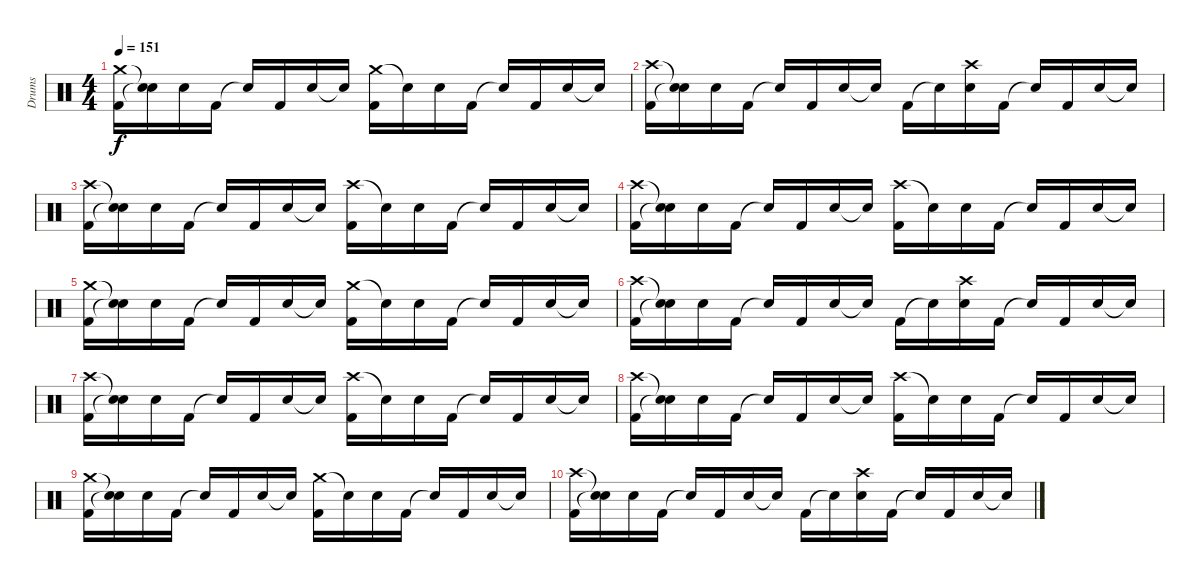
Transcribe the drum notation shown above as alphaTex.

\track ("Drums" "Drums") {instrument percussion}
\staff {score}
\articulation defaults
\ts (4 4)
\tempo 151
\clef neutral
\ks c
("Crash medium (hit)" "Kick (hit) 2").16{dy f} ("Snare (hit)"{t} "Snare (hit)"{t}).16 "Snare (hit) 2".16 "Kick (hit) 2".16 "Snare (hit)"{t}.16 "Kick (hit) 2".16 "Snare (hit) 2".16 "Snare (hit)"{t}.16 ("Crash medium (hit)" "Kick (hit) 2").16 "Snare (hit)"{t}.16 "Snare (hit) 2".16 "Kick (hit) 2".16 "Snare (hit)"{t}.16 "Kick (hit) 2".16 "Snare (hit) 2".16 "Snare (hit)"{t}.16 |
("Crash high (hit)" "Kick (hit) 2").16 ("Snare (hit)"{t} "Snare (hit)"{t}).16 "Snare (hit) 2".16 "Kick (hit) 2".16 "Snare (hit)"{t}.16 "Kick (hit) 2".16 "Snare (hit) 2".16 "Snare (hit)"{t}.16 "Kick (hit) 2".16 "Snare (hit)"{t}.16 ("Crash high (hit)" "Snare (hit) 2").16 "Kick (hit) 2".16 "Snare (hit)"{t}.16 "Kick (hit) 2".16 "Snare (hit) 2".16 "Snare (hit)"{t}.16 |
("Crash high (hit)" "Kick (hit) 2").16 ("Snare (hit)"{t} "Snare (hit)"{t}).16 "Snare (hit) 2".16 "Kick (hit) 2".16 "Snare (hit)"{t}.16 "Kick (hit) 2".16 "Snare (hit) 2".16 "Snare (hit)"{t}.16 ("Crash high (hit)" "Kick (hit) 2").16 "Snare (hit)"{t}.16 "Snare (hit) 2".16 "Kick (hit) 2".16 "Snare (hit)"{t}.16 "Kick (hit) 2".16 "Snare (hit) 2".16 "Snare (hit)"{t}.16 |
("Crash high (hit)" "Kick (hit) 2").16 ("Snare (hit)"{t} "Snare (hit)"{t}).16 "Snare (hit) 2".16 "Kick (hit) 2".16 "Snare (hit)"{t}.16 "Kick (hit) 2".16 "Snare (hit) 2".16 "Snare (hit)"{t}.16 ("Crash high (hit)" "Kick (hit) 2").16 "Snare (hit)"{t}.16 "Snare (hit) 2".16 "Kick (hit) 2".16 "Snare (hit)"{t}.16 "Kick (hit) 2".16 "Snare (hit) 2".16 "Snare (hit)"{t}.16 |
("Crash medium (hit)" "Kick (hit) 2").16 ("Snare (hit)"{t} "Snare (hit)"{t}).16 "Snare (hit) 2".16 "Kick (hit) 2".16 "Snare (hit)"{t}.16 "Kick (hit) 2".16 "Snare (hit) 2".16 "Snare (hit)"{t}.16 ("Crash medium (hit)" "Kick (hit) 2").16 "Snare (hit)"{t}.16 "Snare (hit) 2".16 "Kick (hit) 2".16 "Snare (hit)"{t}.16 "Kick (hit) 2".16 "Snare (hit) 2".16 "Snare (hit)"{t}.16 |
("Crash high (hit)" "Kick (hit) 2").16 ("Snare (hit)"{t} "Snare (hit)"{t}).16 "Snare (hit) 2".16 "Kick (hit) 2".16 "Snare (hit)"{t}.16 "Kick (hit) 2".16 "Snare (hit) 2".16 "Snare (hit)"{t}.16 "Kick (hit) 2".16 "Snare (hit)"{t}.16 ("Crash high (hit)" "Snare (hit) 2").16 "Kick (hit) 2".16 "Snare (hit)"{t}.16 "Kick (hit) 2".16 "Snare (hit) 2".16 "Snare (hit)"{t}.16 |
("Crash high (hit)" "Kick (hit) 2").16 ("Snare (hit)"{t} "Snare (hit)"{t}).16 "Snare (hit) 2".16 "Kick (hit) 2".16 "Snare (hit)"{t}.16 "Kick (hit) 2".16 "Snare (hit) 2".16 "Snare (hit)"{t}.16 ("Crash high (hit)" "Kick (hit) 2").16 "Snare (hit)"{t}.16 "Snare (hit) 2".16 "Kick (hit) 2".16 "Snare (hit)"{t}.16 "Kick (hit) 2".16 "Snare (hit) 2".16 "Snare (hit)"{t}.16 |
("Crash high (hit)" "Kick (hit) 2").16 ("Snare (hit)"{t} "Snare (hit)"{t}).16 "Snare (hit) 2".16 "Kick (hit) 2".16 "Snare (hit)"{t}.16 "Kick (hit) 2".16 "Snare (hit) 2".16 "Snare (hit)"{t}.16 ("Crash high (hit)" "Kick (hit) 2").16 "Snare (hit)"{t}.16 "Snare (hit) 2".16 "Kick (hit) 2".16 "Snare (hit)"{t}.16 "Kick (hit) 2".16 "Snare (hit) 2".16 "Snare (hit)"{t}.16 |
("Crash medium (hit)" "Kick (hit) 2").16 ("Snare (hit)"{t} "Snare (hit)"{t}).16 "Snare (hit) 2".16 "Kick (hit) 2".16 "Snare (hit)"{t}.16 "Kick (hit) 2".16 "Snare (hit) 2".16 "Snare (hit)"{t}.16 ("Crash medium (hit)" "Kick (hit) 2").16 "Snare (hit)"{t}.16 "Snare (hit) 2".16 "Kick (hit) 2".16 "Snare (hit)"{t}.16 "Kick (hit) 2".16 "Snare (hit) 2".16 "Snare (hit)"{t}.16 |
("Crash high (hit)" "Kick (hit) 2").16 ("Snare (hit)"{t} "Snare (hit)"{t}).16 "Snare (hit) 2".16 "Kick (hit) 2".16 "Snare (hit)"{t}.16 "Kick (hit) 2".16 "Snare (hit) 2".16 "Snare (hit)"{t}.16 "Kick (hit) 2".16 "Snare (hit)"{t}.16 ("Crash high (hit)" "Snare (hit) 2").16 "Kick (hit) 2".16 "Snare (hit)"{t}.16 "Kick (hit) 2".16 "Snare (hit) 2".16 "Snare (hit)"{t}.16
